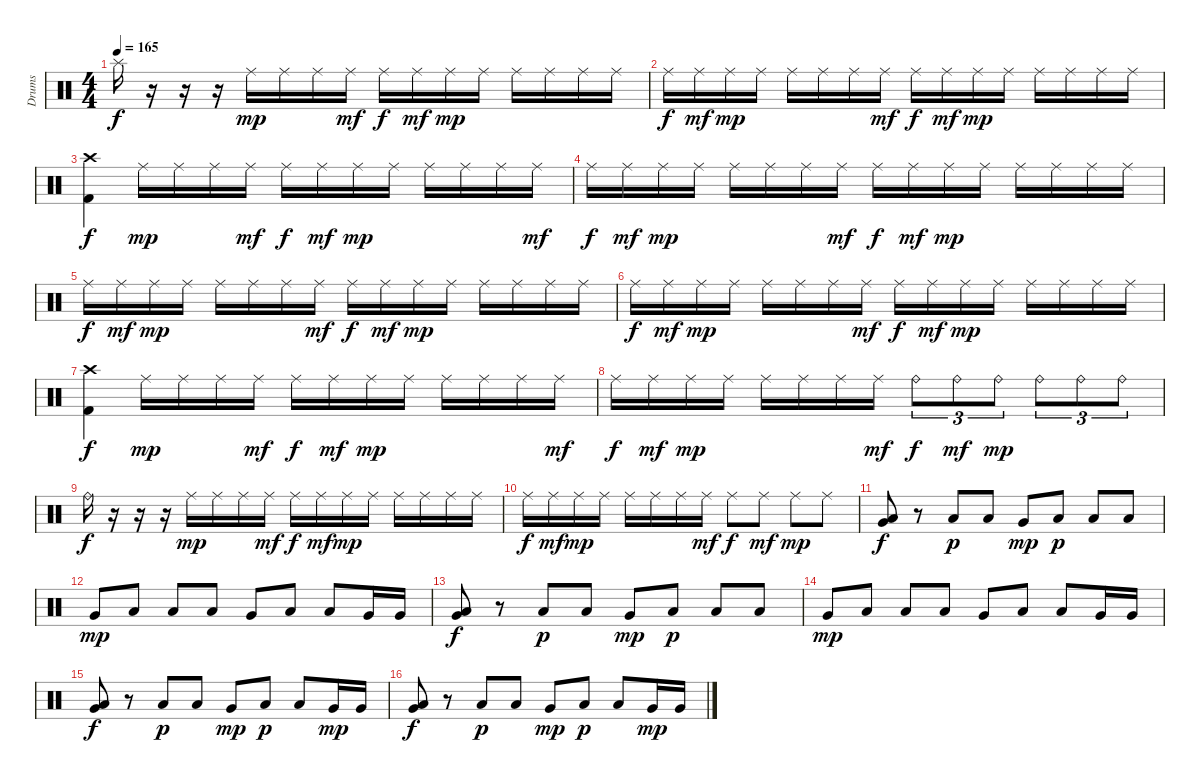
\track ("Drums" "Drums") {instrument percussion}
\staff {score}
\articulation defaults
\ts (4 4)
\tempo 165
\clef neutral
\ks c "Splash (hit)".16{dy f}
r.16 r.16 r.16 "Ride (middle)".16{dy mp} "Ride (middle)".16 "Ride (middle)".16 "Ride (middle)".16{dy mf} "Ride (middle)".16{dy f} "Ride (middle)".16{dy mf} "Ride (middle)".16{dy mp} "Ride (middle)".16 "Ride (middle)".16 "Ride (middle)".16 "Ride (middle)".16 "Ride (middle)".16 |
"Ride (middle)".16{dy f} "Ride (middle)".16{dy mf} "Ride (middle)".16{dy mp} "Ride (middle)".16 "Ride (middle)".16 "Ride (middle)".16 "Ride (middle)".16 "Ride (middle)".16{dy mf} "Ride (middle)".16{dy f} "Ride (middle)".16{dy mf} "Ride (middle)".16{dy mp} "Ride (middle)".16 "Ride (middle)".16 "Ride (middle)".16 "Ride (middle)".16 "Ride (middle)".16 |
("Crash high (hit)" "Kick (hit) 2").4{dy f} "Ride (middle)".16{dy mp} "Ride (middle)".16 "Ride (middle)".16 "Ride (middle)".16{dy mf} "Ride (middle)".16{dy f} "Ride (middle)".16{dy mf} "Ride (middle)".16{dy mp} "Ride (middle)".16 "Ride (middle)".16 "Ride (middle)".16 "Ride (middle)".16 "Ride (middle)".16{dy mf} |
"Ride (middle)".16{dy f} "Ride (middle)".16{dy mf} "Ride (middle)".16{dy mp} "Ride (middle)".16 "Ride (middle)".16 "Ride (middle)".16 "Ride (middle)".16 "Ride (middle)".16{dy mf} "Ride (middle)".16{dy f} "Ride (middle)".16{dy mf} "Ride (middle)".16{dy mp} "Ride (middle)".16 "Ride (middle)".16 "Ride (middle)".16 "Ride (middle)".16 "Ride (middle)".16 |
"Ride (middle)".16{dy f} "Ride (middle)".16{dy mf} "Ride (middle)".16{dy mp} "Ride (middle)".16 "Ride (middle)".16 "Ride (middle)".16 "Ride (middle)".16 "Ride (middle)".16{dy mf} "Ride (middle)".16{dy f} "Ride (middle)".16{dy mf} "Ride (middle)".16{dy mp} "Ride (middle)".16 "Ride (middle)".16 "Ride (middle)".16 "Ride (middle)".16 "Ride (middle)".16 |
"Ride (middle)".16{dy f} "Ride (middle)".16{dy mf} "Ride (middle)".16{dy mp} "Ride (middle)".16 "Ride (middle)".16 "Ride (middle)".16 "Ride (middle)".16 "Ride (middle)".16{dy mf} "Ride (middle)".16{dy f} "Ride (middle)".16{dy mf} "Ride (middle)".16{dy mp} "Ride (middle)".16 "Ride (middle)".16 "Ride (middle)".16 "Ride (middle)".16 "Ride (middle)".16 |
("Crash high (hit)" "Kick (hit) 2").4{dy f} "Ride (middle)".16{dy mp} "Ride (middle)".16 "Ride (middle)".16 "Ride (middle)".16{dy mf} "Ride (middle)".16{dy f} "Ride (middle)".16{dy mf} "Ride (middle)".16{dy mp} "Ride (middle)".16 "Ride (middle)".16 "Ride (middle)".16 "Ride (middle)".16 "Ride (middle)".16{dy mf} |
"Ride (middle)".16{dy f} "Ride (middle)".16{dy mf} "Ride (middle)".16{dy mp} "Ride (middle)".16 "Ride (middle)".16 "Ride (middle)".16 "Ride (middle)".16 "Ride (middle)".16{dy mf} "Ride (bell)".8{tu (3 2) dy f} "Ride (bell)".8{tu (3 2) dy mf} "Ride (bell)".8{tu (3 2) dy mp} "Ride (bell)".8{tu (3 2)} "Ride (bell)".8{tu (3 2)} "Ride (bell)".8{tu (3 2)} |
"Ride (bell)".16{dy f} r.16 r.16 r.16 "Ride (middle)".16{dy mp} "Ride (middle)".16 "Ride (middle)".16 "Ride (middle)".16{dy mf} "Ride (middle)".16{dy f} "Ride (middle)".16{dy mf} "Ride (middle)".16{dy mp} "Ride (middle)".16 "Ride (middle)".16 "Ride (middle)".16 "Ride (middle)".16 "Ride (middle)".16 |
"Ride (middle)".16{dy f} "Ride (middle)".16{dy mf} "Ride (middle)".16{dy mp} "Ride (middle)".16 "Ride (middle)".16 "Ride (middle)".16 "Ride (middle)".16 "Ride (middle)".16{dy mf} "Ride (middle)".8{dy f} "Ride (middle)".8{dy mf} "Ride (middle)".8{dy mp} "Ride (middle)".8 |
("Very Low Tom (hit)" "Low Floor Tom (hit)").8{dy f} r.8 "Low Floor Tom (hit)".8{dy p} "Low Floor Tom (hit)".8 "Very Low Tom (hit)".8{dy mp} "Low Floor Tom (hit)".8{dy p} "Low Floor Tom (hit)".8 "Low Floor Tom (hit)".8 |
"Very Low Tom (hit)".8{dy mp} "Low Floor Tom (hit)".8 "Low Floor Tom (hit)".8 "Low Floor Tom (hit)".8 "Very Low Tom (hit)".8 "Low Floor Tom (hit)".8 "Low Floor Tom (hit)".8 "Very Low Tom (hit)".16 "Very Low Tom (hit)".16 |
("Very Low Tom (hit)" "Low Floor Tom (hit)").8{dy f} r.8 "Low Floor Tom (hit)".8{dy p} "Low Floor Tom (hit)".8 "Very Low Tom (hit)".8{dy mp} "Low Floor Tom (hit)".8{dy p} "Low Floor Tom (hit)".8 "Low Floor Tom (hit)".8 |
"Very Low Tom (hit)".8{dy mp} "Low Floor Tom (hit)".8 "Low Floor Tom (hit)".8 "Low Floor Tom (hit)".8 "Very Low Tom (hit)".8 "Low Floor Tom (hit)".8 "Low Floor Tom (hit)".8 "Very Low Tom (hit)".16 "Very Low Tom (hit)".16 |
("Very Low Tom (hit)" "Low Floor Tom (hit)").8{dy f} r.8 "Low Floor Tom (hit)".8{dy p} "Low Floor Tom (hit)".8 "Very Low Tom (hit)".8{dy mp} "Low Floor Tom (hit)".8{dy p} "Low Floor Tom (hit)".8 "Very Low Tom (hit)".16{dy mp} "Very Low Tom (hit)".16 |
("Very Low Tom (hit)" "Low Floor Tom (hit)").8{dy f} r.8 "Low Floor Tom (hit)".8{dy p} "Low Floor Tom (hit)".8 "Very Low Tom (hit)".8{dy mp} "Low Floor Tom (hit)".8{dy p} "Low Floor Tom (hit)".8 "Very Low Tom (hit)".16{dy mp} "Very Low Tom (hit)".16
